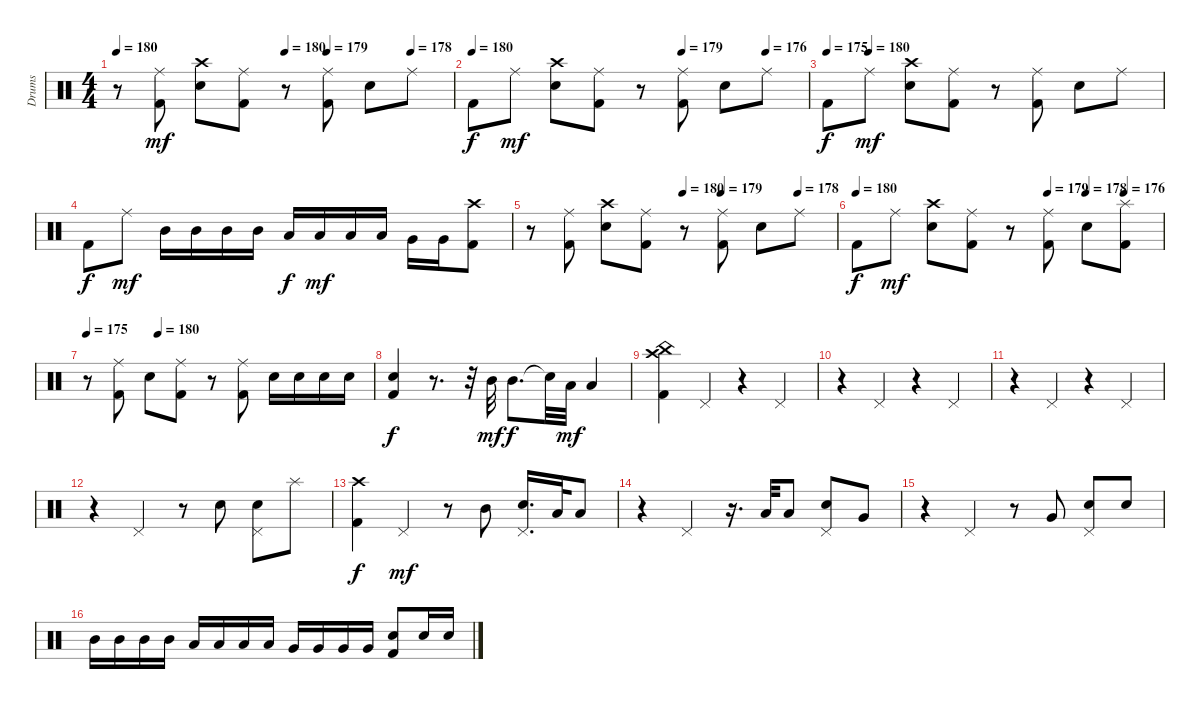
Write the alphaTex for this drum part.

\track ("Drums" "Drums") {instrument percussion}
\staff {score}
\articulation defaults
\ts (4 4)
\tempo 180
\tempo (180 0.5)
\tempo (179 0.625)
\tempo (178 0.875)
\clef neutral
\ks c
r.8{dy mf} ("Ride (middle)" "Kick (hit) 2").8 ("Snare (hit) 2" "Crash high (hit)").8 ("Ride (middle)" "Kick (hit) 2").8 r.8 ("Ride (middle)" "Kick (hit) 2").8 "Snare (hit) 2".8 "Ride (middle)".8 |
\tempo 180
\tempo (179 0.625)
\tempo (176 0.875)
"Kick (hit) 2".8{dy f} "Ride (middle)".8{dy mf} ("Snare (hit) 2" "Crash high (hit)").8 ("Ride (middle)" "Kick (hit) 2").8 r.8 ("Ride (middle)" "Kick (hit) 2").8 "Snare (hit) 2".8 "Ride (middle)".8 |
\tempo 175
\tempo (180 0.125)
"Kick (hit) 2".8{dy f} "Ride (middle)".8{dy mf} ("Snare (hit) 2" "Crash high (hit)").8 ("Ride (middle)" "Kick (hit) 2").8 r.8 ("Ride (middle)" "Kick (hit) 2").8 "Snare (hit) 2".8 "Ride (middle)".8 |
"Kick (hit) 2".8{dy f} "Ride (middle)".8{dy mf} "Mid Tom (hit)".16 "Mid Tom (hit)".16 "Mid Tom (hit)".16 "Mid Tom (hit)".16 "Low Tom (hit)".16{dy f} "Low Tom (hit)".16{dy mf} "Low Tom (hit)".16 "Low Tom (hit)".16 "Very Low Tom (hit)".16 "Very Low Tom (hit)".16 ("Crash high (hit)" "Kick (hit) 2").8 |
\tempo (180 0.5)
\tempo (179 0.625)
\tempo (178 0.875)
r.8 ("Ride (middle)" "Kick (hit) 2").8 ("Snare (hit) 2" "Crash high (hit)").8 ("Ride (middle)" "Kick (hit) 2").8 r.8 ("Ride (middle)" "Kick (hit) 2").8 "Snare (hit) 2".8 "Ride (middle)".8 |
\tempo 180
\tempo (179 0.625)
\tempo (178 0.75)
\tempo (176 0.875)
"Kick (hit) 2".8{dy f} "Ride (middle)".8{dy mf} ("Snare (hit) 2" "Crash high (hit)").8 ("Ride (middle)" "Kick (hit) 2").8 r.8 ("Ride (middle)" "Kick (hit) 2").8 "Snare (hit) 2".8 ("Splash (hit)" "Kick (hit) 2").8 |
\tempo 175
\tempo (180 0.25)
r.8 ("Ride (middle)" "Kick (hit) 2").8 "Snare (hit) 2".8 ("Ride (middle)" "Kick (hit) 2").8 r.8 ("Ride (middle)" "Kick (hit) 2").8 "Snare (hit) 2".16 "Snare (hit) 2".16 "Snare (hit) 2".16 "Snare (hit) 2".16 |
("Snare (hit) 2" "Kick (hit) 2").4{dy f} r.8{d} r.32 "Mid Tom (hit)".32{dy mf} "Mid Tom (hit)".8{d dy f} "Snare (hit)"{t}.32 "Low Tom (hit)".32{dy mf} "Low Tom (hit)".4 |
("Crash high (hit)" "China (hit)" "Kick (hit) 2").4 "Pedal Hi-Hat (hit)".4 r.4 "Pedal Hi-Hat (hit)".4 |
r.4 "Pedal Hi-Hat (hit)".4 r.4 "Pedal Hi-Hat (hit)".4 |
r.4 "Pedal Hi-Hat (hit)".4 r.4 "Pedal Hi-Hat (hit)".4 |
r.4 "Pedal Hi-Hat (hit)".4 r.8 "Snare (hit) 2".8 ("Snare (hit) 2" "Pedal Hi-Hat (hit)").8 "Splash (hit)".8 |
("Crash high (hit)" "Kick (hit) 2").4{dy f} "Pedal Hi-Hat (hit)".4{dy mf} r.8 "Mid Tom (hit)".8 ("Snare (hit) 2" "Pedal Hi-Hat (hit)").16{d} "Low Tom (hit)".32 "Low Tom (hit)".8 |
r.4 "Pedal Hi-Hat (hit)".4 r.16{d} "Low Tom (hit)".32 "Low Tom (hit)".8 ("Snare (hit) 2" "Pedal Hi-Hat (hit)").8 "Very Low Tom (hit)".8 |
r.4 "Pedal Hi-Hat (hit)".4 r.8 "Very Low Tom (hit)".8 ("Snare (hit) 2" "Pedal Hi-Hat (hit)").8 "Snare (hit) 2".8 |
"Mid Tom (hit)".16 "Mid Tom (hit)".16 "Mid Tom (hit)".16 "Mid Tom (hit)".16 "Low Tom (hit)".16 "Low Tom (hit)".16 "Low Tom (hit)".16 "Low Tom (hit)".16 "Very Low Tom (hit)".16 "Very Low Tom (hit)".16 "Very Low Tom (hit)".16 "Very Low Tom (hit)".16 ("Snare (hit) 2" "Kick (hit) 2").8 "Snare (hit) 2".16 "Snare (hit) 2".16
